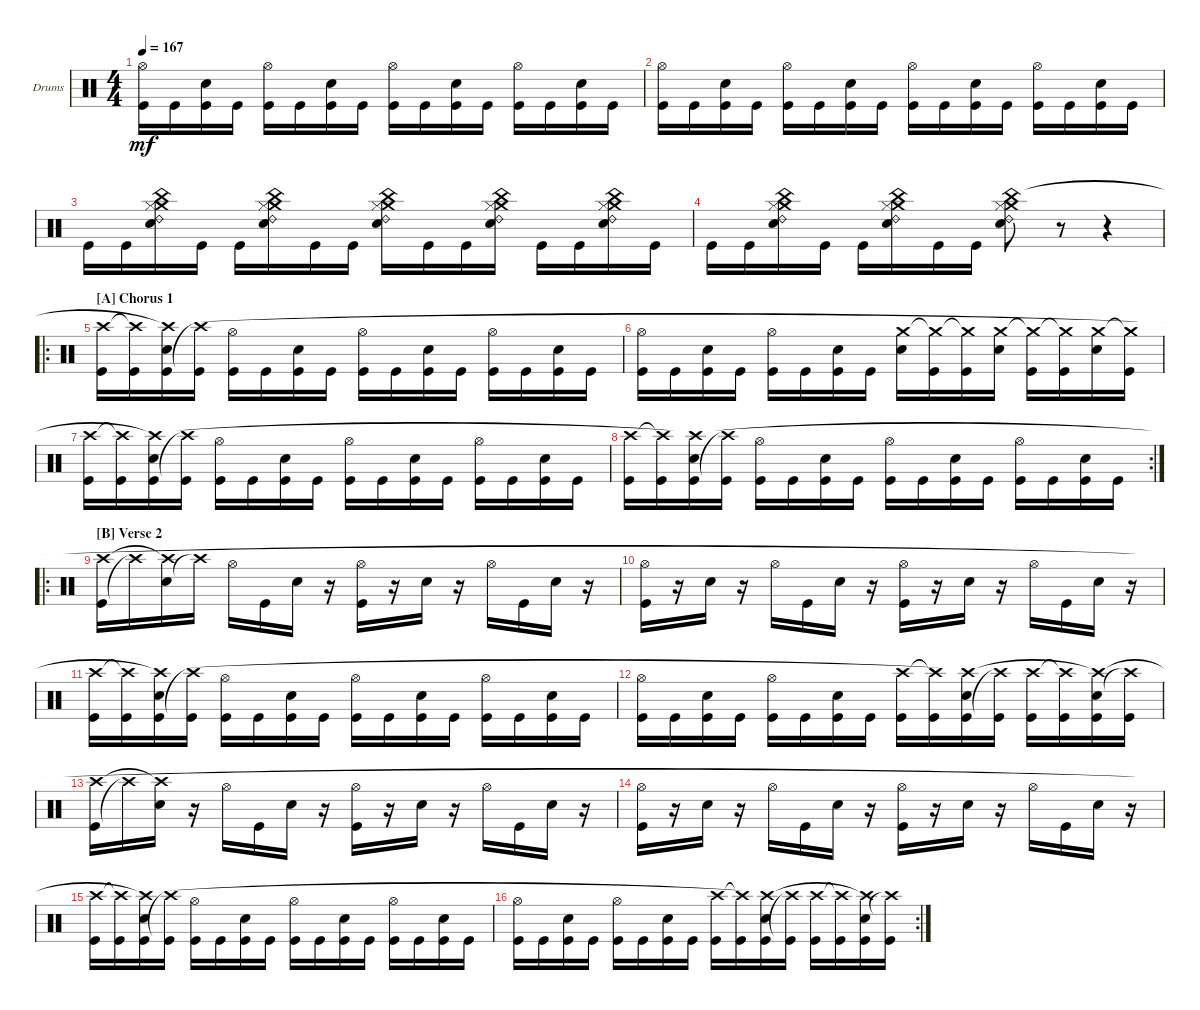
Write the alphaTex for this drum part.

\defaultSystemsLayout 4
\bracketExtendMode groupsimilarinstruments
\firstSystemTrackNameOrientation horizontal
\otherSystemsTrackNameOrientation horizontal
\track ("Drumkit" "Drums") {instrument percussion}
\staff {score}
\articulation defaults
\ts (4 4)
\tempo 167
\clef neutral
\ks c
("Kick (hit)" "Hi-Hat (open)").16{dy mf} "Kick (hit)".16 ("Snare (hit) 2" "Kick (hit)").16 "Kick (hit)".16 ("Hi-Hat (open)" "Kick (hit)").16 "Kick (hit)".16 ("Kick (hit)" "Snare (hit) 2").16 "Kick (hit)".16 ("Kick (hit)" "Hi-Hat (open)").16 "Kick (hit)".16 ("Kick (hit)" "Snare (hit) 2").16 "Kick (hit)".16 ("Kick (hit)" "Hi-Hat (open)").16 "Kick (hit)".16 ("Kick (hit)" "Snare (hit) 2").16 "Kick (hit)".16 |
("Kick (hit)" "Hi-Hat (open)").16 "Kick (hit)".16 ("Snare (hit) 2" "Kick (hit)").16 "Kick (hit)".16 ("Hi-Hat (open)" "Kick (hit)").16 "Kick (hit)".16 ("Kick (hit)" "Snare (hit) 2").16 "Kick (hit)".16 ("Kick (hit)" "Hi-Hat (open)").16 "Kick (hit)".16 ("Kick (hit)" "Snare (hit) 2").16 "Kick (hit)".16 ("Kick (hit)" "Hi-Hat (open)").16 "Kick (hit)".16 ("Kick (hit)" "Snare (hit) 2").16 "Kick (hit)".16 |
"Kick (hit)".16 "Kick (hit)".16 ("Snare (hit) 2" "Ride (bell) 2" "China (hit)" "Crash medium (hit)" "Hi-Hat (closed)").16 "Kick (hit)".16 "Kick (hit)".16 ("Snare (hit) 2" "Ride (bell) 2" "China (hit)" "Crash medium (hit)" "Hi-Hat (closed)").16 "Kick (hit)".16 "Kick (hit)".16 ("Snare (hit) 2" "Ride (bell) 2" "China (hit)" "Crash medium (hit)" "Hi-Hat (closed)").16 "Kick (hit)".16 "Kick (hit)".16 ("Snare (hit) 2" "Ride (bell) 2" "China (hit)" "Crash medium (hit)" "Hi-Hat (closed)").16 "Kick (hit)".16 "Kick (hit)".16 ("Snare (hit) 2" "Ride (bell) 2" "China (hit)" "Crash medium (hit)" "Hi-Hat (closed)").16 "Kick (hit)".16 |
"Kick (hit)".16 "Kick (hit)".16 ("Snare (hit) 2" "Ride (bell) 2" "China (hit)" "Crash medium (hit)" "Hi-Hat (closed)").16 "Kick (hit)".16 "Kick (hit)".16 ("Snare (hit) 2" "Ride (bell) 2" "China (hit)" "Crash medium (hit)" "Hi-Hat (closed)").16 "Kick (hit)".16 "Kick (hit)".16 ("Snare (hit) 2" "Ride (bell) 2" "China (hit)" "Crash medium (hit)" "Hi-Hat (closed)").8 r.8 r.4 |
\ro
\section ("A" "Chorus 1")
("Kick (hit)" "Crash high (hit)").16 ("Kick (hit)" "Crash high (hit)"{t}).16 ("Snare (hit) 2" "Kick (hit)" "Crash high (hit)"{t}).16 ("Kick (hit)" "Crash high (hit)"{t}).16 ("Hi-Hat (open)" "Kick (hit)").16 "Kick (hit)".16 ("Kick (hit)" "Snare (hit) 2").16 "Kick (hit)".16 ("Kick (hit)" "Hi-Hat (open)").16 "Kick (hit)".16 ("Kick (hit)" "Snare (hit) 2").16 "Kick (hit)".16 ("Kick (hit)" "Hi-Hat (open)").16 "Kick (hit)".16 ("Kick (hit)" "Snare (hit) 2").16 "Kick (hit)".16 |
("Kick (hit)" "Hi-Hat (open)").16 "Kick (hit)".16 ("Snare (hit) 2" "Kick (hit)").16 "Kick (hit)".16 ("Hi-Hat (open)" "Kick (hit)").16 "Kick (hit)".16 ("Kick (hit)" "Snare (hit) 2").16 "Kick (hit)".16 ("Snare (hit) 2" "Crash medium (hit)").16 ("Kick (hit)" "Crash medium (hit)"{t}).16 ("Kick (hit)" "Crash medium (hit)"{t}).16 ("Snare (hit) 2" "Crash medium (hit)").16 ("Kick (hit)" "Crash medium (hit)"{t}).16 ("Kick (hit)" "Crash medium (hit)"{t}).16 ("Snare (hit) 2" "Crash medium (hit)").16 ("Kick (hit)" "Crash medium (hit)"{t}).16 |
("Kick (hit)" "Crash high (hit)").16 ("Kick (hit)" "Crash high (hit)"{t}).16 ("Snare (hit) 2" "Kick (hit)" "Crash high (hit)"{t}).16 ("Kick (hit)" "Crash high (hit)"{t}).16 ("Hi-Hat (open)" "Kick (hit)").16 "Kick (hit)".16 ("Kick (hit)" "Snare (hit) 2").16 "Kick (hit)".16 ("Kick (hit)" "Hi-Hat (open)").16 "Kick (hit)".16 ("Kick (hit)" "Snare (hit) 2").16 "Kick (hit)".16 ("Kick (hit)" "Hi-Hat (open)").16 "Kick (hit)".16 ("Kick (hit)" "Snare (hit) 2").16 "Kick (hit)".16 |
\rc 2
("Kick (hit)" "Crash high (hit)").16 ("Kick (hit)" "Crash high (hit)"{t}).16 ("Snare (hit) 2" "Kick (hit)" "Crash high (hit)"{t}).16 ("Kick (hit)" "Crash high (hit)"{t}).16 ("Hi-Hat (open)" "Kick (hit)").16 "Kick (hit)".16 ("Kick (hit)" "Snare (hit) 2").16 "Kick (hit)".16 ("Kick (hit)" "Hi-Hat (open)").16 "Kick (hit)".16 ("Snare (hit) 2" "Kick (hit)").16 "Kick (hit)".16 ("Kick (hit)" "Hi-Hat (open)").16 "Kick (hit)".16 ("Kick (hit)" "Snare (hit) 2").16 "Kick (hit)".16 |
\ro
\section ("B" "Verse 2")
("Kick (hit)" "Crash high (hit)").16 "Crash high (hit)"{t}.16 ("Snare (hit) 2" "Crash high (hit)"{t}).16 "Crash high (hit)"{t}.16 "Hi-Hat (open)".16 "Kick (hit)".16 "Snare (hit) 2".16 r.16 ("Kick (hit)" "Hi-Hat (open)").16 r.16 "Snare (hit) 2".16 r.16 "Hi-Hat (open)".16 "Kick (hit)".16 "Snare (hit) 2".16 r.16 |
("Kick (hit)" "Hi-Hat (open)").16 r.16 "Snare (hit) 2".16 r.16 "Hi-Hat (open)".16 "Kick (hit)".16 "Snare (hit) 2".16 r.16 ("Kick (hit)" "Hi-Hat (open)").16 r.16 "Snare (hit) 2".16 r.16 "Hi-Hat (open)".16 "Kick (hit)".16 "Snare (hit) 2".16 r.16 |
("Kick (hit)" "Crash high (hit)").16 ("Kick (hit)" "Crash high (hit)"{t}).16 ("Snare (hit) 2" "Kick (hit)" "Crash high (hit)"{t}).16 ("Kick (hit)" "Crash high (hit)"{t}).16 ("Hi-Hat (open)" "Kick (hit)").16 "Kick (hit)".16 ("Kick (hit)" "Snare (hit) 2").16 "Kick (hit)".16 ("Kick (hit)" "Hi-Hat (open)").16 "Kick (hit)".16 ("Kick (hit)" "Snare (hit) 2").16 "Kick (hit)".16 ("Kick (hit)" "Hi-Hat (open)").16 "Kick (hit)".16 ("Kick (hit)" "Snare (hit) 2").16 "Kick (hit)".16 |
("Kick (hit)" "Hi-Hat (open)").16 "Kick (hit)".16 ("Snare (hit) 2" "Kick (hit)").16 "Kick (hit)".16 ("Hi-Hat (open)" "Kick (hit)").16 "Kick (hit)".16 ("Kick (hit)" "Snare (hit) 2").16 "Kick (hit)".16 ("Kick (hit)" "Crash high (hit)").16 ("Kick (hit)" "Crash high (hit)"{t}).16 ("Snare (hit) 2" "Kick (hit)" "Crash high (hit)"{t}).16 ("Kick (hit)" "Crash high (hit)"{t}).16 ("Kick (hit)" "Crash high (hit)").16 ("Kick (hit)" "Crash high (hit)"{t}).16 ("Kick (hit)" "Snare (hit) 2" "Crash high (hit)"{t}).16 ("Kick (hit)" "Crash high (hit)"{t}).16 |
("Kick (hit)" "Crash high (hit)").16 "Crash high (hit)"{t}.16 ("Snare (hit) 2" "Crash high (hit)"{t}).16 r.16 "Hi-Hat (open)".16 "Kick (hit)".16 "Snare (hit) 2".16 r.16 ("Kick (hit)" "Hi-Hat (open)").16 r.16 "Snare (hit) 2".16 r.16 "Hi-Hat (open)".16 "Kick (hit)".16 "Snare (hit) 2".16 r.16 |
("Kick (hit)" "Hi-Hat (open)").16 r.16 "Snare (hit) 2".16 r.16 "Hi-Hat (open)".16 "Kick (hit)".16 "Snare (hit) 2".16 r.16 ("Kick (hit)" "Hi-Hat (open)").16 r.16 "Snare (hit) 2".16 r.16 "Hi-Hat (open)".16 "Kick (hit)".16 "Snare (hit) 2".16 r.16 |
("Kick (hit)" "Crash high (hit)").16 ("Kick (hit)" "Crash high (hit)"{t}).16 ("Snare (hit) 2" "Kick (hit)" "Crash high (hit)"{t}).16 ("Kick (hit)" "Crash high (hit)"{t}).16 ("Hi-Hat (open)" "Kick (hit)").16 "Kick (hit)".16 ("Kick (hit)" "Snare (hit) 2").16 "Kick (hit)".16 ("Kick (hit)" "Hi-Hat (open)").16 "Kick (hit)".16 ("Kick (hit)" "Snare (hit) 2").16 "Kick (hit)".16 ("Kick (hit)" "Hi-Hat (open)").16 "Kick (hit)".16 ("Kick (hit)" "Snare (hit) 2").16 "Kick (hit)".16 |
\rc 2
("Kick (hit)" "Hi-Hat (open)").16 "Kick (hit)".16 ("Snare (hit) 2" "Kick (hit)").16 "Kick (hit)".16 ("Hi-Hat (open)" "Kick (hit)").16 "Kick (hit)".16 ("Kick (hit)" "Snare (hit) 2").16 "Kick (hit)".16 ("Kick (hit)" "Crash high (hit)").16 ("Kick (hit)" "Crash high (hit)"{t}).16 ("Snare (hit) 2" "Kick (hit)" "Crash high (hit)"{t}).16 ("Kick (hit)" "Crash high (hit)"{t}).16 ("Kick (hit)" "Crash high (hit)").16 ("Kick (hit)" "Crash high (hit)"{t}).16 ("Kick (hit)" "Snare (hit) 2" "Crash high (hit)"{t}).16 ("Kick (hit)" "Crash high (hit)"{t}).16
